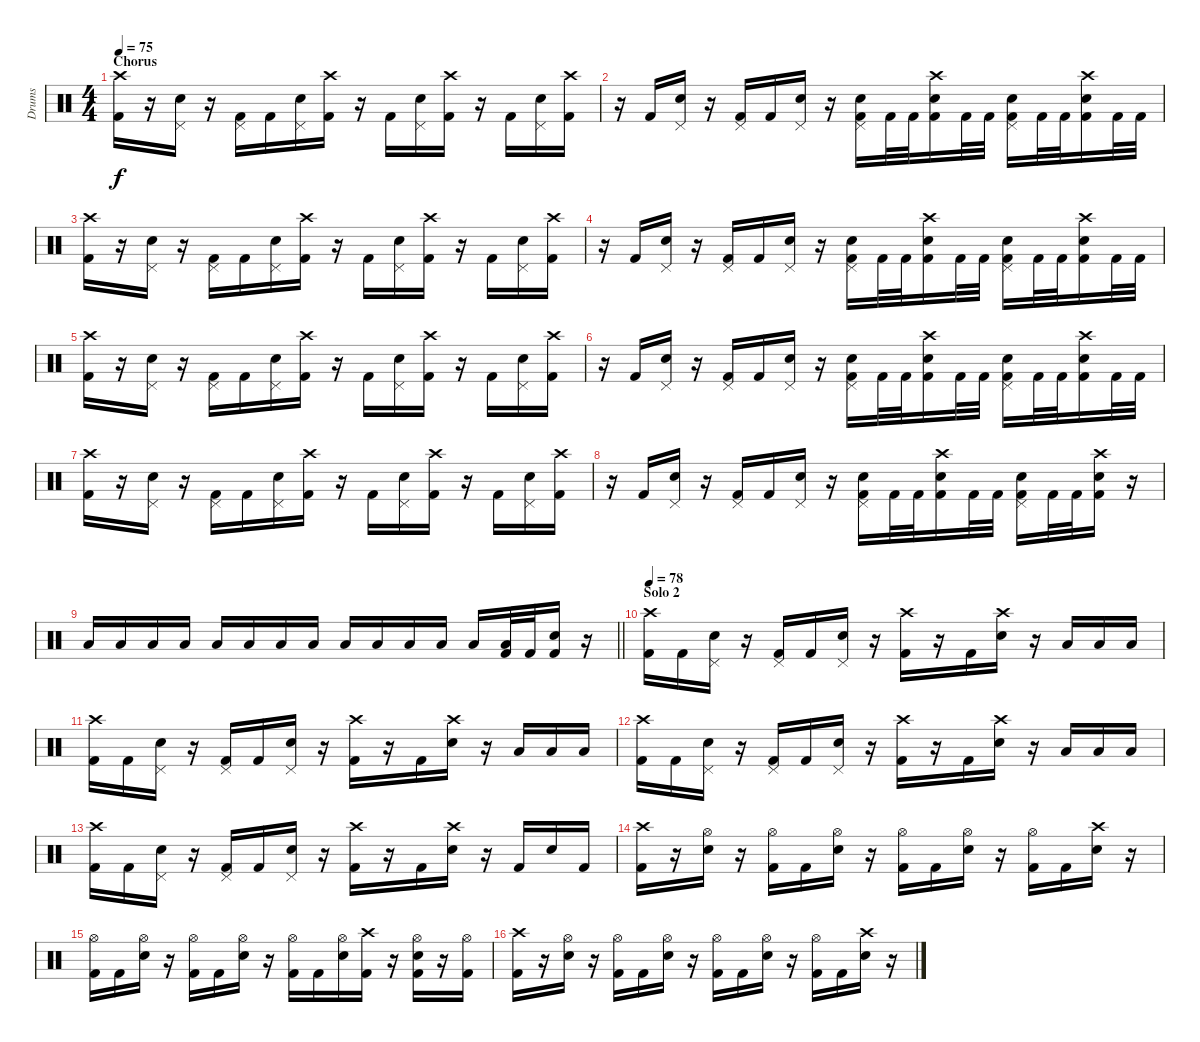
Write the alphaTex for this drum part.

\track ("Drums" "Drums") {instrument percussion}
\staff {score}
\articulation defaults
\ts (4 4)
\section ("" "Chorus")
\tempo 75
\clef neutral
\ks c
("Crash high (hit)" "Kick (hit) 2").16{dy f} r.16 ("Pedal Hi-Hat (hit)" "Snare (hit) 2").16 r.16 ("Pedal Hi-Hat (hit)" "Kick (hit) 2").16 "Kick (hit) 2".16 ("Pedal Hi-Hat (hit)" "Snare (hit) 2").16 ("Crash high (hit)" "Kick (hit) 2").16 r.16 "Kick (hit) 2".16 ("Pedal Hi-Hat (hit)" "Snare (hit) 2").16 ("Crash high (hit)" "Kick (hit) 2").16 r.16 "Kick (hit) 2".16 ("Pedal Hi-Hat (hit)" "Snare (hit) 2").16 ("Crash high (hit)" "Kick (hit) 2").16 |
r.16 "Kick (hit) 2".16 ("Pedal Hi-Hat (hit)" "Snare (hit) 2").16 r.16 ("Pedal Hi-Hat (hit)" "Kick (hit) 2").16 "Kick (hit) 2".16 ("Pedal Hi-Hat (hit)" "Snare (hit) 2").16 r.16 ("Pedal Hi-Hat (hit)" "Snare (hit) 2" "Kick (hit) 2").16 "Kick (hit) 2".32 "Kick (hit) 2".32 ("Crash high (hit)" "Snare (hit) 2" "Kick (hit) 2").16 "Kick (hit) 2".32 "Kick (hit) 2".32 ("Pedal Hi-Hat (hit)" "Snare (hit) 2" "Kick (hit) 2").16 "Kick (hit) 2".32 "Kick (hit) 2".32 ("Crash high (hit)" "Snare (hit) 2" "Kick (hit) 2").16 "Kick (hit) 2".32 "Kick (hit) 2".32 |
("Crash high (hit)" "Kick (hit) 2").16 r.16 ("Pedal Hi-Hat (hit)" "Snare (hit) 2").16 r.16 ("Pedal Hi-Hat (hit)" "Kick (hit) 2").16 "Kick (hit) 2".16 ("Pedal Hi-Hat (hit)" "Snare (hit) 2").16 ("Crash high (hit)" "Kick (hit) 2").16 r.16 "Kick (hit) 2".16 ("Pedal Hi-Hat (hit)" "Snare (hit) 2").16 ("Crash high (hit)" "Kick (hit) 2").16 r.16 "Kick (hit) 2".16 ("Pedal Hi-Hat (hit)" "Snare (hit) 2").16 ("Crash high (hit)" "Kick (hit) 2").16 |
r.16 "Kick (hit) 2".16 ("Pedal Hi-Hat (hit)" "Snare (hit) 2").16 r.16 ("Pedal Hi-Hat (hit)" "Kick (hit) 2").16 "Kick (hit) 2".16 ("Pedal Hi-Hat (hit)" "Snare (hit) 2").16 r.16 ("Pedal Hi-Hat (hit)" "Snare (hit) 2" "Kick (hit) 2").16 "Kick (hit) 2".32 "Kick (hit) 2".32 ("Crash high (hit)" "Snare (hit) 2" "Kick (hit) 2").16 "Kick (hit) 2".32 "Kick (hit) 2".32 ("Pedal Hi-Hat (hit)" "Snare (hit) 2" "Kick (hit) 2").16 "Kick (hit) 2".32 "Kick (hit) 2".32 ("Crash high (hit)" "Snare (hit) 2" "Kick (hit) 2").16 "Kick (hit) 2".32 "Kick (hit) 2".32 |
("Crash high (hit)" "Kick (hit) 2").16 r.16 ("Pedal Hi-Hat (hit)" "Snare (hit) 2").16 r.16 ("Pedal Hi-Hat (hit)" "Kick (hit) 2").16 "Kick (hit) 2".16 ("Pedal Hi-Hat (hit)" "Snare (hit) 2").16 ("Crash high (hit)" "Kick (hit) 2").16 r.16 "Kick (hit) 2".16 ("Pedal Hi-Hat (hit)" "Snare (hit) 2").16 ("Crash high (hit)" "Kick (hit) 2").16 r.16 "Kick (hit) 2".16 ("Pedal Hi-Hat (hit)" "Snare (hit) 2").16 ("Crash high (hit)" "Kick (hit) 2").16 |
r.16 "Kick (hit) 2".16 ("Pedal Hi-Hat (hit)" "Snare (hit) 2").16 r.16 ("Pedal Hi-Hat (hit)" "Kick (hit) 2").16 "Kick (hit) 2".16 ("Pedal Hi-Hat (hit)" "Snare (hit) 2").16 r.16 ("Pedal Hi-Hat (hit)" "Snare (hit) 2" "Kick (hit) 2").16 "Kick (hit) 2".32 "Kick (hit) 2".32 ("Crash high (hit)" "Snare (hit) 2" "Kick (hit) 2").16 "Kick (hit) 2".32 "Kick (hit) 2".32 ("Pedal Hi-Hat (hit)" "Snare (hit) 2" "Kick (hit) 2").16 "Kick (hit) 2".32 "Kick (hit) 2".32 ("Crash high (hit)" "Snare (hit) 2" "Kick (hit) 2").16 "Kick (hit) 2".32 "Kick (hit) 2".32 |
("Crash high (hit)" "Kick (hit) 2").16 r.16 ("Pedal Hi-Hat (hit)" "Snare (hit) 2").16 r.16 ("Pedal Hi-Hat (hit)" "Kick (hit) 2").16 "Kick (hit) 2".16 ("Pedal Hi-Hat (hit)" "Snare (hit) 2").16 ("Crash high (hit)" "Kick (hit) 2").16 r.16 "Kick (hit) 2".16 ("Pedal Hi-Hat (hit)" "Snare (hit) 2").16 ("Crash high (hit)" "Kick (hit) 2").16 r.16 "Kick (hit) 2".16 ("Pedal Hi-Hat (hit)" "Snare (hit) 2").16 ("Crash high (hit)" "Kick (hit) 2").16 |
r.16 "Kick (hit) 2".16 ("Pedal Hi-Hat (hit)" "Snare (hit) 2").16 r.16 ("Pedal Hi-Hat (hit)" "Kick (hit) 2").16 "Kick (hit) 2".16 ("Pedal Hi-Hat (hit)" "Snare (hit) 2").16 r.16 ("Pedal Hi-Hat (hit)" "Snare (hit) 2" "Kick (hit) 2").16 "Kick (hit) 2".32 "Kick (hit) 2".32 ("Crash high (hit)" "Snare (hit) 2" "Kick (hit) 2").16 "Kick (hit) 2".32 "Kick (hit) 2".32 ("Pedal Hi-Hat (hit)" "Snare (hit) 2" "Kick (hit) 2").16 "Kick (hit) 2".32 "Kick (hit) 2".32 ("Crash high (hit)" "Snare (hit) 2" "Kick (hit) 2").16 r.16 |
\barLineRight lightlight "Low Tom (hit)".16 "Low Tom (hit)".16 "Low Tom (hit)".16 "Low Tom (hit)".16 "Low Tom (hit)".16 "Low Tom (hit)".16 "Low Tom (hit)".16 "Low Tom (hit)".16 "Low Tom (hit)".16 "Low Tom (hit)".16 "Low Tom (hit)".16 "Low Tom (hit)".16 "Low Tom (hit)".16
("Low Tom (hit)" "Kick (hit) 2").32 "Kick (hit) 2".32 ("Snare (hit) 2" "Kick (hit) 2").16 r.16 |
\section ("" "Solo 2")
\tempo 78
("Crash high (hit)" "Kick (hit) 2").16 "Kick (hit) 2".16 ("Pedal Hi-Hat (hit)" "Snare (hit) 2").16 r.16 ("Pedal Hi-Hat (hit)" "Kick (hit) 2").16 "Kick (hit) 2".16 ("Pedal Hi-Hat (hit)" "Snare (hit) 2").16 r.16 ("Crash high (hit)" "Kick (hit) 2").16 r.16 "Kick (hit) 2".16 ("Crash high (hit)" "Snare (hit) 2").16 r.16 "Low Tom (hit)".16 "Low Tom (hit)".16 "Low Tom (hit)".16 |
("Crash high (hit)" "Kick (hit) 2").16 "Kick (hit) 2".16 ("Pedal Hi-Hat (hit)" "Snare (hit) 2").16 r.16 ("Pedal Hi-Hat (hit)" "Kick (hit) 2").16 "Kick (hit) 2".16 ("Pedal Hi-Hat (hit)" "Snare (hit) 2").16 r.16 ("Crash high (hit)" "Kick (hit) 2").16 r.16 "Kick (hit) 2".16 ("Crash high (hit)" "Snare (hit) 2").16 r.16 "Low Tom (hit)".16 "Low Tom (hit)".16 "Low Tom (hit)".16 |
("Crash high (hit)" "Kick (hit) 2").16 "Kick (hit) 2".16 ("Pedal Hi-Hat (hit)" "Snare (hit) 2").16 r.16 ("Pedal Hi-Hat (hit)" "Kick (hit) 2").16 "Kick (hit) 2".16 ("Pedal Hi-Hat (hit)" "Snare (hit) 2").16 r.16 ("Crash high (hit)" "Kick (hit) 2").16 r.16 "Kick (hit) 2".16 ("Crash high (hit)" "Snare (hit) 2").16 r.16 "Low Tom (hit)".16 "Low Tom (hit)".16 "Low Tom (hit)".16 |
("Crash high (hit)" "Kick (hit) 2").16 "Kick (hit) 2".16 ("Pedal Hi-Hat (hit)" "Snare (hit) 2").16 r.16 ("Pedal Hi-Hat (hit)" "Kick (hit) 2").16 "Kick (hit) 2".16 ("Pedal Hi-Hat (hit)" "Snare (hit) 2").16 r.16 ("Crash high (hit)" "Kick (hit) 2").16 r.16 "Kick (hit) 2".16 ("Crash high (hit)" "Snare (hit) 2").16 r.16 "Kick (hit) 2".16 "Snare (hit) 2".16 "Kick (hit) 2".16 |
("Crash high (hit)" "Kick (hit) 2").16 r.16 ("Hi-Hat (open)" "Snare (hit) 2").16 r.16 ("Hi-Hat (open)" "Kick (hit) 2").16 "Kick (hit) 2".16 ("Hi-Hat (open)" "Snare (hit) 2").16 r.16 ("Hi-Hat (open)" "Kick (hit) 2").16 "Kick (hit) 2".16 ("Hi-Hat (open)" "Snare (hit) 2").16 r.16 ("Hi-Hat (open)" "Kick (hit) 2").16 "Kick (hit) 2".16 ("Crash high (hit)" "Snare (hit) 2").16 r.16 |
("Hi-Hat (open)" "Kick (hit) 2").16 "Kick (hit) 2".16 ("Hi-Hat (open)" "Snare (hit) 2").16 r.16 ("Hi-Hat (open)" "Kick (hit) 2").16 "Kick (hit) 2".16 ("Hi-Hat (open)" "Snare (hit) 2").16 r.16 ("Hi-Hat (open)" "Kick (hit) 2").16 "Kick (hit) 2".16 ("Hi-Hat (open)" "Snare (hit) 2").16 ("Crash high (hit)" "Kick (hit) 2").16 r.16 ("Hi-Hat (open)" "Snare (hit) 2" "Kick (hit) 2").16 r.16 ("Hi-Hat (open)" "Kick (hit) 2").16 |
("Crash high (hit)" "Kick (hit) 2").16 r.16 ("Hi-Hat (open)" "Snare (hit) 2").16 r.16 ("Hi-Hat (open)" "Kick (hit) 2").16 "Kick (hit) 2".16 ("Hi-Hat (open)" "Snare (hit) 2").16 r.16 ("Hi-Hat (open)" "Kick (hit) 2").16 "Kick (hit) 2".16 ("Hi-Hat (open)" "Snare (hit) 2").16 r.16 ("Hi-Hat (open)" "Kick (hit) 2").16 "Kick (hit) 2".16 ("Crash high (hit)" "Snare (hit) 2").16 r.16
